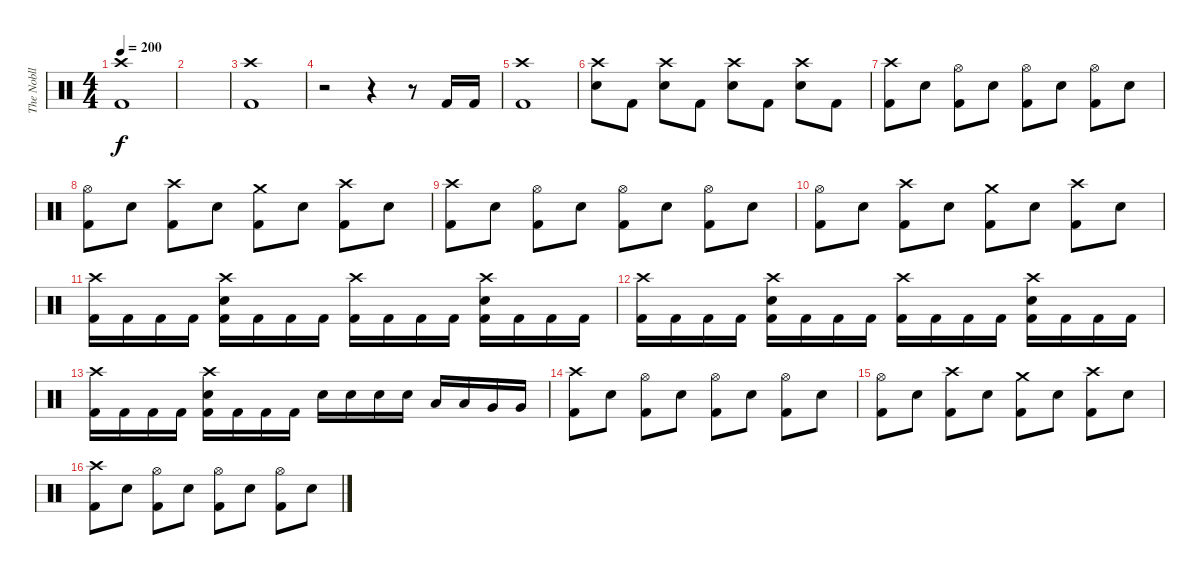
\track ("The Nobll" "The Nobll") {instrument percussion}
\staff {score}
\articulation defaults
\ts (4 4)
\tempo 200
\clef neutral
\ks c
("Crash high (hit)" "Kick (hit) 2").1{dy f} |
|
("Crash high (hit)" "Kick (hit) 2").1 |
r.2 r.4 r.8 "Kick (hit) 2".16 "Kick (hit) 2".16 |
("Crash high (hit)" "Kick (hit) 2").1 |
("Crash high (hit)" "Snare (hit) 2").8 "Kick (hit) 2".8 ("Crash high (hit)" "Snare (hit) 2").8 "Kick (hit) 2".8 ("Crash high (hit)" "Snare (hit) 2").8 "Kick (hit) 2".8 ("Crash high (hit)" "Snare (hit) 2").8 "Kick (hit) 2".8 |
("Crash high (hit)" "Kick (hit) 2").8 "Snare (hit) 2".8 ("Hi-Hat (open)" "Kick (hit) 2").8 "Snare (hit) 2".8 ("Hi-Hat (open)" "Kick (hit) 2").8 "Snare (hit) 2".8 ("Hi-Hat (open)" "Kick (hit) 2").8 "Snare (hit) 2".8 |
("Hi-Hat (open)" "Kick (hit) 2").8 "Snare (hit) 2".8 ("Crash high (hit)" "Kick (hit) 2").8 "Snare (hit) 2".8 ("Crash medium (hit)" "Kick (hit) 2").8 "Snare (hit) 2".8 ("Crash high (hit)" "Kick (hit) 2").8 "Snare (hit) 2".8 |
("Crash high (hit)" "Kick (hit) 2").8 "Snare (hit) 2".8 ("Hi-Hat (open)" "Kick (hit) 2").8 "Snare (hit) 2".8 ("Hi-Hat (open)" "Kick (hit) 2").8 "Snare (hit) 2".8 ("Hi-Hat (open)" "Kick (hit) 2").8 "Snare (hit) 2".8 |
("Hi-Hat (open)" "Kick (hit) 2").8 "Snare (hit) 2".8 ("Crash high (hit)" "Kick (hit) 2").8 "Snare (hit) 2".8 ("Crash medium (hit)" "Kick (hit) 2").8 "Snare (hit) 2".8 ("Crash high (hit)" "Kick (hit) 2").8 "Snare (hit) 2".8 |
("Crash high (hit)" "Kick (hit) 2").16 "Kick (hit) 2".16 "Kick (hit) 2".16 "Kick (hit) 2".16 ("Crash high (hit)" "Snare (hit) 2" "Kick (hit) 2").16 "Kick (hit) 2".16 "Kick (hit) 2".16 "Kick (hit) 2".16 ("Crash high (hit)" "Kick (hit) 2").16 "Kick (hit) 2".16 "Kick (hit) 2".16 "Kick (hit) 2".16 ("Crash high (hit)" "Snare (hit) 2" "Kick (hit) 2").16 "Kick (hit) 2".16 "Kick (hit) 2".16 "Kick (hit) 2".16 |
("Crash high (hit)" "Kick (hit) 2").16 "Kick (hit) 2".16 "Kick (hit) 2".16 "Kick (hit) 2".16 ("Crash high (hit)" "Snare (hit) 2" "Kick (hit) 2").16 "Kick (hit) 2".16 "Kick (hit) 2".16 "Kick (hit) 2".16 ("Crash high (hit)" "Kick (hit) 2").16 "Kick (hit) 2".16 "Kick (hit) 2".16 "Kick (hit) 2".16 ("Crash high (hit)" "Snare (hit) 2" "Kick (hit) 2").16 "Kick (hit) 2".16 "Kick (hit) 2".16 "Kick (hit) 2".16 |
("Crash high (hit)" "Kick (hit) 2").16 "Kick (hit) 2".16 "Kick (hit) 2".16 "Kick (hit) 2".16 ("Crash high (hit)" "Snare (hit) 2" "Kick (hit) 2").16 "Kick (hit) 2".16 "Kick (hit) 2".16 "Kick (hit) 2".16 "Snare (hit) 2".16 "Snare (hit) 2".16 "Snare (hit) 2".16 "Snare (hit) 2".16 "Low Tom (hit)".16 "Low Tom (hit)".16 "Very Low Tom (hit)".16 "Very Low Tom (hit)".16 |
("Crash high (hit)" "Kick (hit) 2").8 "Snare (hit) 2".8 ("Hi-Hat (open)" "Kick (hit) 2").8 "Snare (hit) 2".8 ("Hi-Hat (open)" "Kick (hit) 2").8 "Snare (hit) 2".8 ("Hi-Hat (open)" "Kick (hit) 2").8 "Snare (hit) 2".8 |
("Hi-Hat (open)" "Kick (hit) 2").8 "Snare (hit) 2".8 ("Crash high (hit)" "Kick (hit) 2").8 "Snare (hit) 2".8 ("Crash medium (hit)" "Kick (hit) 2").8 "Snare (hit) 2".8 ("Crash high (hit)" "Kick (hit) 2").8 "Snare (hit) 2".8 |
("Crash high (hit)" "Kick (hit) 2").8 "Snare (hit) 2".8 ("Hi-Hat (open)" "Kick (hit) 2").8 "Snare (hit) 2".8 ("Hi-Hat (open)" "Kick (hit) 2").8 "Snare (hit) 2".8 ("Hi-Hat (open)" "Kick (hit) 2").8 "Snare (hit) 2".8
